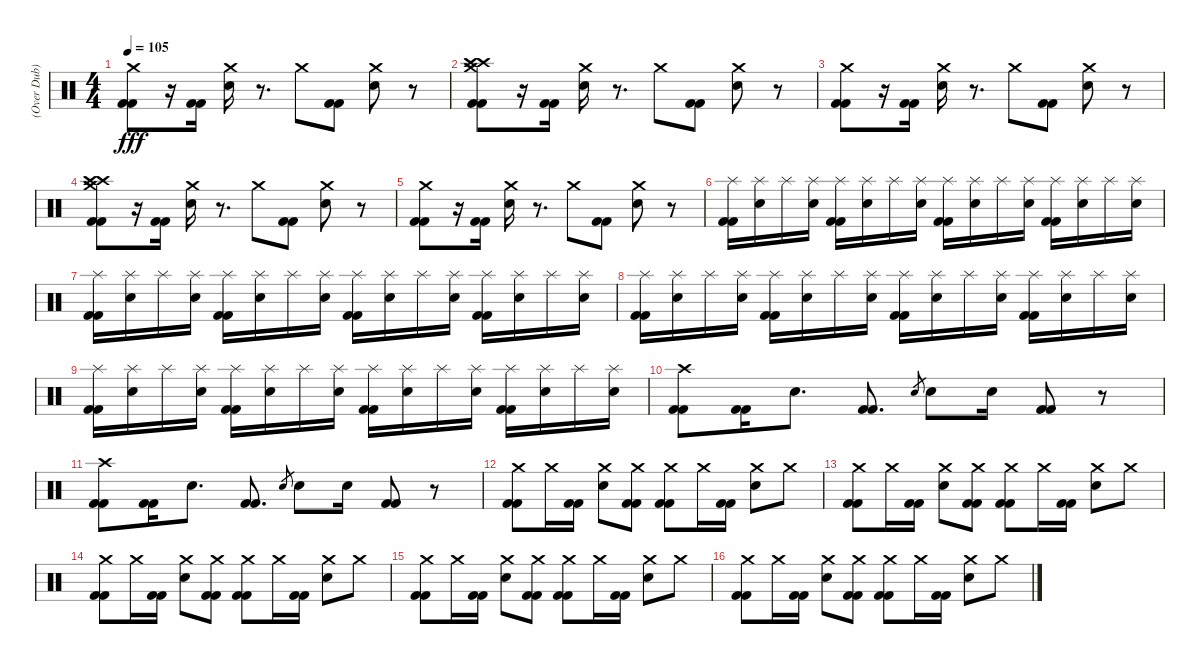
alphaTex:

\track ("(Over Dub)" "(Over Dub)") {instrument percussion}
\staff {score}
\articulation defaults
\ts (4 4)
\tempo 105
\clef neutral
\ks c
("Crash medium (hit)" "Kick (hit) 2" "Kick (hit) 2").8{dy fff} r.16 ("Kick (hit) 2" "Kick (hit) 2").16 ("Crash medium (hit)" "Electric Snare (hit)").16 r.8{d} "Crash medium (hit)".8 ("Kick (hit) 2" "Kick (hit) 2").8 ("Crash medium (hit)" "Electric Snare (hit)").8 r.8 |
("Crash high (hit)" "Crash high (hit)" "Crash medium (hit)" "Kick (hit) 2" "Kick (hit) 2").8 r.16 ("Kick (hit) 2" "Kick (hit) 2").16 ("Crash medium (hit)" "Electric Snare (hit)").16 r.8{d} "Crash medium (hit)".8 ("Kick (hit) 2" "Kick (hit) 2").8 ("Crash medium (hit)" "Electric Snare (hit)").8 r.8 |
("Crash medium (hit)" "Kick (hit) 2" "Kick (hit) 2").8 r.16 ("Kick (hit) 2" "Kick (hit) 2").16 ("Crash medium (hit)" "Electric Snare (hit)").16 r.8{d} "Crash medium (hit)".8 ("Kick (hit) 2" "Kick (hit) 2").8 ("Crash medium (hit)" "Electric Snare (hit)").8 r.8 |
("Crash high (hit)" "Crash high (hit)" "Crash medium (hit)" "Kick (hit) 2" "Kick (hit) 2").8 r.16 ("Kick (hit) 2" "Kick (hit) 2").16 ("Crash medium (hit)" "Electric Snare (hit)").16 r.8{d} "Crash medium (hit)".8 ("Kick (hit) 2" "Kick (hit) 2").8 ("Crash medium (hit)" "Electric Snare (hit)").8 r.8 |
("Crash medium (hit)" "Kick (hit) 2" "Kick (hit) 2").8 r.16 ("Kick (hit) 2" "Kick (hit) 2").16 ("Crash medium (hit)" "Electric Snare (hit)").16 r.8{d} "Crash medium (hit)".8 ("Kick (hit) 2" "Kick (hit) 2").8 ("Crash medium (hit)" "Electric Snare (hit)").8 r.8 |
("Splash (hit)" "Kick (hit) 2" "Kick (hit) 2").16 ("Splash (hit)" "Electric Snare (hit)").16 "Splash (hit)".16 ("Splash (hit)" "Electric Snare (hit)").16 ("Splash (hit)" "Kick (hit) 2" "Kick (hit) 2").16 ("Splash (hit)" "Electric Snare (hit)").16 "Splash (hit)".16 ("Splash (hit)" "Electric Snare (hit)").16 ("Splash (hit)" "Kick (hit) 2" "Kick (hit) 2").16 ("Splash (hit)" "Electric Snare (hit)").16 "Splash (hit)".16 ("Splash (hit)" "Electric Snare (hit)").16 ("Splash (hit)" "Kick (hit) 2" "Kick (hit) 2").16 ("Splash (hit)" "Electric Snare (hit)").16 "Splash (hit)".16 ("Splash (hit)" "Electric Snare (hit)").16 |
("Splash (hit)" "Kick (hit) 2" "Kick (hit) 2").16 ("Splash (hit)" "Electric Snare (hit)").16 "Splash (hit)".16 ("Splash (hit)" "Electric Snare (hit)").16 ("Splash (hit)" "Kick (hit) 2" "Kick (hit) 2").16 ("Splash (hit)" "Electric Snare (hit)").16 "Splash (hit)".16 ("Splash (hit)" "Electric Snare (hit)").16 ("Splash (hit)" "Kick (hit) 2" "Kick (hit) 2").16 ("Splash (hit)" "Electric Snare (hit)").16 "Splash (hit)".16 ("Splash (hit)" "Electric Snare (hit)").16 ("Splash (hit)" "Kick (hit) 2" "Kick (hit) 2").16 ("Splash (hit)" "Electric Snare (hit)").16 "Splash (hit)".16 ("Splash (hit)" "Electric Snare (hit)").16 |
("Splash (hit)" "Kick (hit) 2" "Kick (hit) 2").16 ("Splash (hit)" "Electric Snare (hit)").16 "Splash (hit)".16 ("Splash (hit)" "Electric Snare (hit)").16 ("Splash (hit)" "Kick (hit) 2" "Kick (hit) 2").16 ("Splash (hit)" "Electric Snare (hit)").16 "Splash (hit)".16 ("Splash (hit)" "Electric Snare (hit)").16 ("Splash (hit)" "Kick (hit) 2" "Kick (hit) 2").16 ("Splash (hit)" "Electric Snare (hit)").16 "Splash (hit)".16 ("Splash (hit)" "Electric Snare (hit)").16 ("Splash (hit)" "Kick (hit) 2" "Kick (hit) 2").16 ("Splash (hit)" "Electric Snare (hit)").16 "Splash (hit)".16 ("Splash (hit)" "Electric Snare (hit)").16 |
("Splash (hit)" "Kick (hit) 2" "Kick (hit) 2").16 ("Splash (hit)" "Electric Snare (hit)").16 "Splash (hit)".16 ("Splash (hit)" "Electric Snare (hit)").16 ("Splash (hit)" "Kick (hit) 2" "Kick (hit) 2").16 ("Splash (hit)" "Electric Snare (hit)").16 "Splash (hit)".16 ("Splash (hit)" "Electric Snare (hit)").16 ("Splash (hit)" "Kick (hit) 2" "Kick (hit) 2").16 ("Splash (hit)" "Electric Snare (hit)").16 "Splash (hit)".16 ("Splash (hit)" "Electric Snare (hit)").16 ("Splash (hit)" "Kick (hit) 2" "Kick (hit) 2").16 ("Splash (hit)" "Electric Snare (hit)").16 "Splash (hit)".16 ("Splash (hit)" "Electric Snare (hit)").16 |
("Crash high (hit)" "Kick (hit) 2" "Kick (hit) 2").8 ("Kick (hit) 2" "Kick (hit) 2").16 "Electric Snare (hit)".8{d} ("Kick (hit) 2" "Kick (hit) 2").8{d} "Electric Snare (hit)".8{gr} "Electric Snare (hit)".8 "Electric Snare (hit)".16 ("Kick (hit) 2" "Kick (hit) 2").8 r.8 |
("Crash high (hit)" "Kick (hit) 2" "Kick (hit) 2").8 ("Kick (hit) 2" "Kick (hit) 2").16 "Electric Snare (hit)".8{d} ("Kick (hit) 2" "Kick (hit) 2").8{d} "Electric Snare (hit)".8{gr} "Electric Snare (hit)".8 "Electric Snare (hit)".16 ("Kick (hit) 2" "Kick (hit) 2").8 r.8 |
("Crash medium (hit)" "Kick (hit) 2" "Kick (hit) 2").8 "Crash medium (hit)".16 ("Kick (hit) 2" "Kick (hit) 2").16 ("Crash medium (hit)" "Electric Snare (hit)").8 ("Crash medium (hit)" "Kick (hit) 2" "Kick (hit) 2").8 ("Crash medium (hit)" "Kick (hit) 2" "Kick (hit) 2").8 "Crash medium (hit)".16 ("Kick (hit) 2" "Kick (hit) 2").16 ("Crash medium (hit)" "Electric Snare (hit)").8 "Crash medium (hit)".8 |
("Crash medium (hit)" "Kick (hit) 2" "Kick (hit) 2").8 "Crash medium (hit)".16 ("Kick (hit) 2" "Kick (hit) 2").16 ("Crash medium (hit)" "Electric Snare (hit)").8 ("Crash medium (hit)" "Kick (hit) 2" "Kick (hit) 2").8 ("Crash medium (hit)" "Kick (hit) 2" "Kick (hit) 2").8 "Crash medium (hit)".16 ("Kick (hit) 2" "Kick (hit) 2").16 ("Crash medium (hit)" "Electric Snare (hit)").8 "Crash medium (hit)".8 |
("Crash medium (hit)" "Kick (hit) 2" "Kick (hit) 2").8 "Crash medium (hit)".16 ("Kick (hit) 2" "Kick (hit) 2").16 ("Crash medium (hit)" "Electric Snare (hit)").8 ("Crash medium (hit)" "Kick (hit) 2" "Kick (hit) 2").8 ("Crash medium (hit)" "Kick (hit) 2" "Kick (hit) 2").8 "Crash medium (hit)".16 ("Kick (hit) 2" "Kick (hit) 2").16 ("Crash medium (hit)" "Electric Snare (hit)").8 "Crash medium (hit)".8 |
("Crash medium (hit)" "Kick (hit) 2" "Kick (hit) 2").8 "Crash medium (hit)".16 ("Kick (hit) 2" "Kick (hit) 2").16 ("Crash medium (hit)" "Electric Snare (hit)").8 ("Crash medium (hit)" "Kick (hit) 2" "Kick (hit) 2").8 ("Crash medium (hit)" "Kick (hit) 2" "Kick (hit) 2").8 "Crash medium (hit)".16 ("Kick (hit) 2" "Kick (hit) 2").16 ("Crash medium (hit)" "Electric Snare (hit)").8 "Crash medium (hit)".8 |
("Crash medium (hit)" "Kick (hit) 2" "Kick (hit) 2").8 "Crash medium (hit)".16 ("Kick (hit) 2" "Kick (hit) 2").16 ("Crash medium (hit)" "Electric Snare (hit)").8 ("Crash medium (hit)" "Kick (hit) 2" "Kick (hit) 2").8 ("Crash medium (hit)" "Kick (hit) 2" "Kick (hit) 2").8 "Crash medium (hit)".16 ("Kick (hit) 2" "Kick (hit) 2").16 ("Crash medium (hit)" "Electric Snare (hit)").8 "Crash medium (hit)".8
